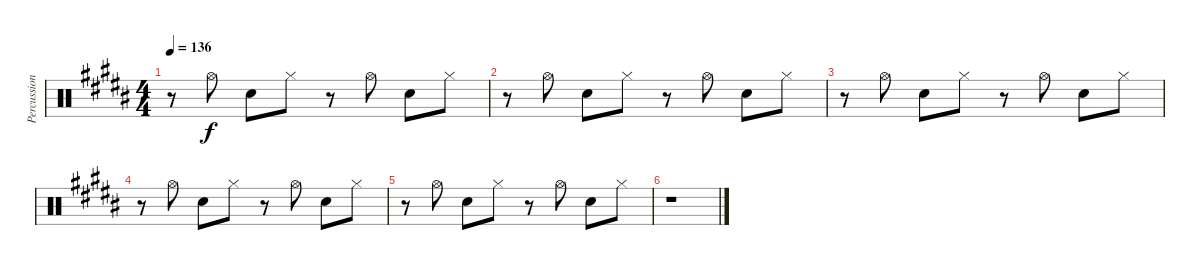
\track ("Percussion" "Percussion") {instrument percussion}
\staff {score}
\articulation defaults
\ts (4 4)
\tempo 136
\clef neutral
\ks g#minor
r.8{dy f} "Hi-Hat (open)".8 "Snare (hit) 2".8 "Hi-Hat (closed)".8 r.8 "Hi-Hat (open)".8 "Snare (hit) 2".8 "Hi-Hat (closed)".8 |
r.8 "Hi-Hat (open)".8 "Snare (hit) 2".8 "Hi-Hat (closed)".8 r.8 "Hi-Hat (open)".8 "Snare (hit) 2".8 "Hi-Hat (closed)".8 |
r.8 "Hi-Hat (open)".8 "Snare (hit) 2".8 "Hi-Hat (closed)".8 r.8 "Hi-Hat (open)".8 "Snare (hit) 2".8 "Hi-Hat (closed)".8 |
r.8 "Hi-Hat (open)".8 "Snare (hit) 2".8 "Hi-Hat (closed)".8 r.8 "Hi-Hat (open)".8 "Snare (hit) 2".8 "Hi-Hat (closed)".8 |
r.8 "Hi-Hat (open)".8 "Snare (hit) 2".8 "Hi-Hat (closed)".8 r.8 "Hi-Hat (open)".8 "Snare (hit) 2".8 "Hi-Hat (closed)".8 |
r.1
